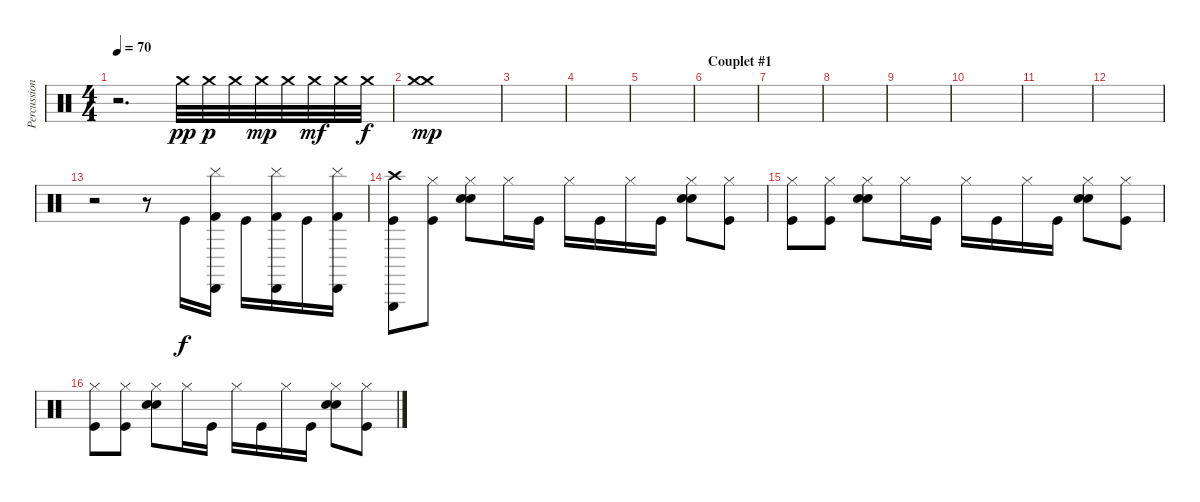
\track ("Percussion" "Percussion") {instrument percussion}
\staff {score}
\articulation defaults
\ts (4 4)
\tempo 70
\clef neutral
\ks c
r.2{d dy pp} "Crash medium (hit)".32 "Crash medium (hit)".32{dy p} "Crash medium (hit)".32 "Crash medium (hit)".32{dy mp} "Crash medium (hit)".32 "Crash medium (hit)".32{dy mf} "Crash medium (hit)".32 "Crash medium (hit)".32{dy f} |
("Crash medium (hit)" "Crash medium (hit)").1{dy mp} |
|
|
|
\section ("" "Couplet #1")
|
|
|
|
|
|
|
r.2 r.8 "Kick (hit)".16{dy f} ("Kick (hit) 2" "Cabasa (hit)" "Cymbal (hit)").16 "Kick (hit)".16 ("Kick (hit) 2" "Cabasa (hit)" "Cymbal (hit)").16 "Kick (hit)".16 ("Kick (hit) 2" "Cabasa (hit)" "Cymbal (hit)").16 |
("Kick (hit)" "Triangle (hit)" "Crash high (hit)").8 ("Kick (hit)" "Hi-Hat (closed)").8 ("Snare (hit) 2" "Electric Snare (hit)" "Hi-Hat (closed)").8 "Hi-Hat (closed)".16 "Kick (hit)".16 "Hi-Hat (closed)".16 "Kick (hit)".16 "Hi-Hat (closed)".16 "Kick (hit)".16 ("Snare (hit) 2" "Electric Snare (hit)" "Hi-Hat (closed)").8 ("Kick (hit)" "Hi-Hat (closed)").8 |
("Kick (hit)" "Hi-Hat (closed)").8 ("Kick (hit)" "Hi-Hat (closed)").8 ("Snare (hit) 2" "Electric Snare (hit)" "Hi-Hat (closed)").8 "Hi-Hat (closed)".16 "Kick (hit)".16 "Hi-Hat (closed)".16 "Kick (hit)".16 "Hi-Hat (closed)".16 "Kick (hit)".16 ("Snare (hit) 2" "Electric Snare (hit)" "Hi-Hat (closed)").8 ("Kick (hit)" "Hi-Hat (closed)").8 |
("Kick (hit)" "Hi-Hat (closed)").8 ("Kick (hit)" "Hi-Hat (closed)").8 ("Snare (hit) 2" "Electric Snare (hit)" "Hi-Hat (closed)").8 "Hi-Hat (closed)".16 "Kick (hit)".16 "Hi-Hat (closed)".16 "Kick (hit)".16 "Hi-Hat (closed)".16 "Kick (hit)".16 ("Snare (hit) 2" "Electric Snare (hit)" "Hi-Hat (closed)").8 ("Kick (hit)" "Hi-Hat (closed)").8
